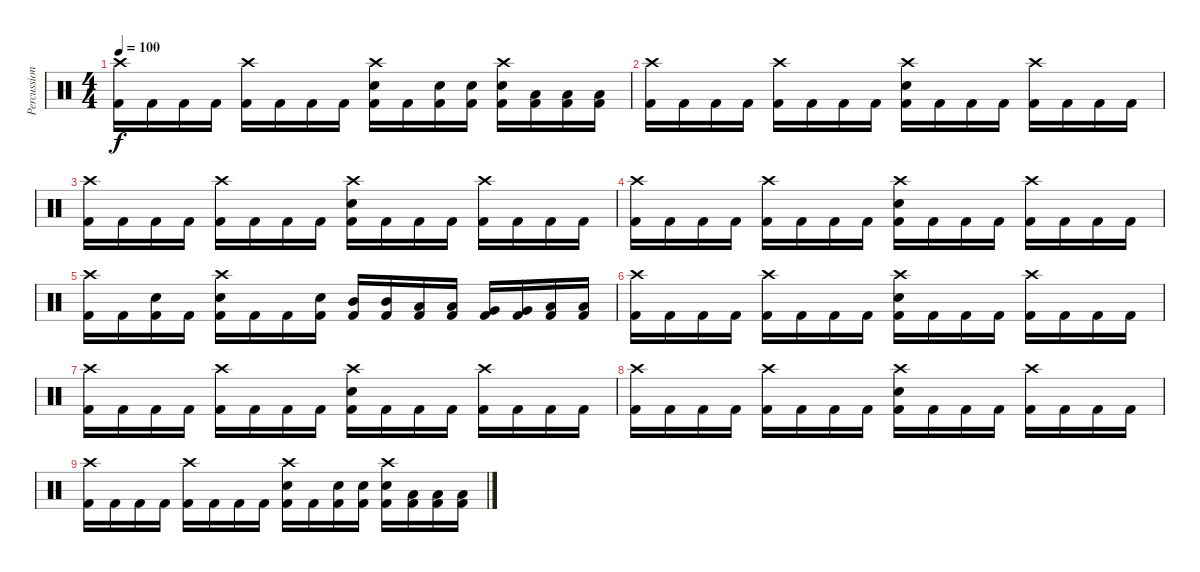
\track ("Percussion" "Percussion") {instrument percussion}
\staff {score}
\articulation defaults
\ts (4 4)
\tempo 100
\clef neutral
\ks c
("Crash high (hit)" "Kick (hit) 2").16{dy f} "Kick (hit) 2".16 "Kick (hit) 2".16 "Kick (hit) 2".16 ("Crash high (hit)" "Kick (hit) 2").16 "Kick (hit) 2".16 "Kick (hit) 2".16 "Kick (hit) 2".16 ("Crash high (hit)" "Electric Snare (hit)" "Kick (hit) 2").16 "Kick (hit) 2".16 ("Electric Snare (hit)" "Kick (hit) 2").16 ("Electric Snare (hit)" "Kick (hit) 2").16 ("Crash high (hit)" "Electric Snare (hit)" "Kick (hit) 2").16 ("Low Tom (hit)" "Kick (hit) 2").16 ("Low Tom (hit)" "Kick (hit) 2").16 ("Low Tom (hit)" "Kick (hit) 2").16 |
("Crash high (hit)" "Kick (hit) 2").16{volume 7} "Kick (hit) 2".16 "Kick (hit) 2".16 "Kick (hit) 2".16 ("Crash high (hit)" "Kick (hit) 2").16 "Kick (hit) 2".16 "Kick (hit) 2".16 "Kick (hit) 2".16 ("Crash high (hit)" "Electric Snare (hit)" "Kick (hit) 2").16 "Kick (hit) 2".16 "Kick (hit) 2".16 "Kick (hit) 2".16 ("Crash high (hit)" "Kick (hit) 2").16 "Kick (hit) 2".16 "Kick (hit) 2".16 "Kick (hit) 2".16 |
("Crash high (hit)" "Kick (hit) 2").16 "Kick (hit) 2".16 "Kick (hit) 2".16 "Kick (hit) 2".16 ("Crash high (hit)" "Kick (hit) 2").16 "Kick (hit) 2".16 "Kick (hit) 2".16 "Kick (hit) 2".16 ("Crash high (hit)" "Electric Snare (hit)" "Kick (hit) 2").16 "Kick (hit) 2".16 "Kick (hit) 2".16 "Kick (hit) 2".16 ("Crash high (hit)" "Kick (hit) 2").16 "Kick (hit) 2".16 "Kick (hit) 2".16 "Kick (hit) 2".16 |
("Crash high (hit)" "Kick (hit) 2").16 "Kick (hit) 2".16 "Kick (hit) 2".16 "Kick (hit) 2".16 ("Crash high (hit)" "Kick (hit) 2").16 "Kick (hit) 2".16 "Kick (hit) 2".16 "Kick (hit) 2".16 ("Crash high (hit)" "Electric Snare (hit)" "Kick (hit) 2").16 "Kick (hit) 2".16 "Kick (hit) 2".16 "Kick (hit) 2".16 ("Crash high (hit)" "Kick (hit) 2").16 "Kick (hit) 2".16 "Kick (hit) 2".16 "Kick (hit) 2".16 |
("Crash high (hit)" "Kick (hit) 2").16 "Kick (hit) 2".16 ("Electric Snare (hit)" "Kick (hit) 2").16 "Kick (hit) 2".16 ("Crash high (hit)" "Electric Snare (hit)" "Kick (hit) 2").16 "Kick (hit) 2".16 "Kick (hit) 2".16 ("Electric Snare (hit)" "Kick (hit) 2").16 ("Mid Tom (hit)" "Kick (hit) 2").16 ("Mid Tom (hit)" "Kick (hit) 2").16 ("Low Tom (hit)" "Kick (hit) 2").16 ("Low Tom (hit)" "Kick (hit) 2").16 ("Very Low Tom (hit)" "Kick (hit) 2").16 ("Very Low Tom (hit)" "Kick (hit) 2").16 ("Low Floor Tom (hit)" "Kick (hit) 2").16 ("Low Floor Tom (hit)" "Kick (hit) 2").16 |
("Crash high (hit)" "Kick (hit) 2").16{volume 0} "Kick (hit) 2".16 "Kick (hit) 2".16 "Kick (hit) 2".16 ("Crash high (hit)" "Kick (hit) 2").16 "Kick (hit) 2".16 "Kick (hit) 2".16 "Kick (hit) 2".16 ("Crash high (hit)" "Electric Snare (hit)" "Kick (hit) 2").16 "Kick (hit) 2".16 "Kick (hit) 2".16 "Kick (hit) 2".16 ("Crash high (hit)" "Kick (hit) 2").16 "Kick (hit) 2".16 "Kick (hit) 2".16 "Kick (hit) 2".16 |
("Crash high (hit)" "Kick (hit) 2").16 "Kick (hit) 2".16 "Kick (hit) 2".16 "Kick (hit) 2".16 ("Crash high (hit)" "Kick (hit) 2").16 "Kick (hit) 2".16 "Kick (hit) 2".16 "Kick (hit) 2".16 ("Crash high (hit)" "Electric Snare (hit)" "Kick (hit) 2").16 "Kick (hit) 2".16 "Kick (hit) 2".16 "Kick (hit) 2".16 ("Crash high (hit)" "Kick (hit) 2").16 "Kick (hit) 2".16 "Kick (hit) 2".16 "Kick (hit) 2".16 |
("Crash high (hit)" "Kick (hit) 2").16 "Kick (hit) 2".16 "Kick (hit) 2".16 "Kick (hit) 2".16 ("Crash high (hit)" "Kick (hit) 2").16 "Kick (hit) 2".16 "Kick (hit) 2".16 "Kick (hit) 2".16 ("Crash high (hit)" "Electric Snare (hit)" "Kick (hit) 2").16 "Kick (hit) 2".16 "Kick (hit) 2".16 "Kick (hit) 2".16 ("Crash high (hit)" "Kick (hit) 2").16 "Kick (hit) 2".16 "Kick (hit) 2".16 "Kick (hit) 2".16 |
("Crash high (hit)" "Kick (hit) 2").16 "Kick (hit) 2".16 "Kick (hit) 2".16 "Kick (hit) 2".16 ("Crash high (hit)" "Kick (hit) 2").16 "Kick (hit) 2".16 "Kick (hit) 2".16 "Kick (hit) 2".16 ("Crash high (hit)" "Electric Snare (hit)" "Kick (hit) 2").16 "Kick (hit) 2".16 ("Electric Snare (hit)" "Kick (hit) 2").16 ("Electric Snare (hit)" "Kick (hit) 2").16 ("Crash high (hit)" "Electric Snare (hit)" "Kick (hit) 2").16 ("Low Tom (hit)" "Kick (hit) 2").16 ("Low Tom (hit)" "Kick (hit) 2").16 ("Low Tom (hit)" "Kick (hit) 2").16
